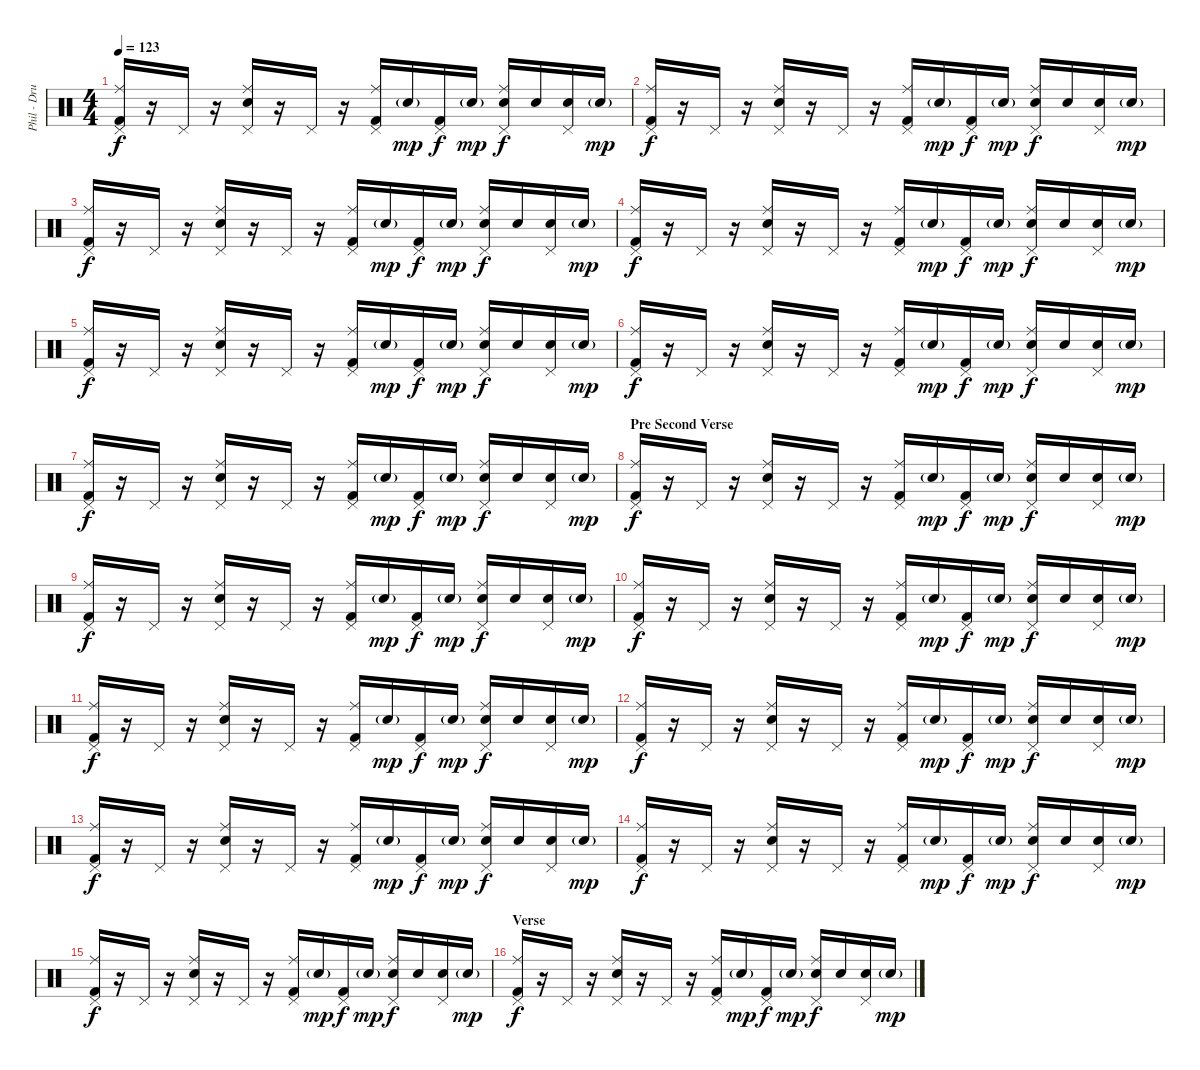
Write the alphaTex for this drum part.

\track ("Phil - Drums" "Phil - Dru") {instrument percussion}
\staff {score}
\articulation defaults
\ts (4 4)
\tempo 123
\clef neutral
\ks c
("Ride (middle)" "Kick (hit) 2" "Pedal Hi-Hat (hit)").16{dy f} r.16 "Pedal Hi-Hat (hit)".16 r.16 ("Ride (middle)" "Snare (hit) 2" "Pedal Hi-Hat (hit)").16 r.16 "Pedal Hi-Hat (hit)".16 r.16 ("Ride (middle)" "Kick (hit) 2" "Pedal Hi-Hat (hit)").16 "Snare (hit) 2"{g}.16{dy mp} ("Kick (hit) 2" "Pedal Hi-Hat (hit)").16{dy f} "Snare (hit) 2"{g}.16{dy mp} ("Ride (middle)" "Snare (hit) 2" "Pedal Hi-Hat (hit)").16{dy f} "Snare (hit) 2".16 ("Snare (hit) 2" "Pedal Hi-Hat (hit)").16 "Snare (hit) 2"{g}.16{dy mp} |
("Ride (middle)" "Kick (hit) 2" "Pedal Hi-Hat (hit)").16{dy f} r.16 "Pedal Hi-Hat (hit)".16 r.16 ("Ride (middle)" "Snare (hit) 2" "Pedal Hi-Hat (hit)").16 r.16 "Pedal Hi-Hat (hit)".16 r.16 ("Ride (middle)" "Kick (hit) 2" "Pedal Hi-Hat (hit)").16 "Snare (hit) 2"{g}.16{dy mp} ("Kick (hit) 2" "Pedal Hi-Hat (hit)").16{dy f} "Snare (hit) 2"{g}.16{dy mp} ("Ride (middle)" "Snare (hit) 2" "Pedal Hi-Hat (hit)").16{dy f} "Snare (hit) 2".16 ("Snare (hit) 2" "Pedal Hi-Hat (hit)").16 "Snare (hit) 2"{g}.16{dy mp} |
("Ride (middle)" "Kick (hit) 2" "Pedal Hi-Hat (hit)").16{dy f} r.16 "Pedal Hi-Hat (hit)".16 r.16 ("Ride (middle)" "Snare (hit) 2" "Pedal Hi-Hat (hit)").16 r.16 "Pedal Hi-Hat (hit)".16 r.16 ("Ride (middle)" "Kick (hit) 2" "Pedal Hi-Hat (hit)").16 "Snare (hit) 2"{g}.16{dy mp} ("Kick (hit) 2" "Pedal Hi-Hat (hit)").16{dy f} "Snare (hit) 2"{g}.16{dy mp} ("Ride (middle)" "Snare (hit) 2" "Pedal Hi-Hat (hit)").16{dy f} "Snare (hit) 2".16 ("Snare (hit) 2" "Pedal Hi-Hat (hit)").16 "Snare (hit) 2"{g}.16{dy mp} |
("Ride (middle)" "Kick (hit) 2" "Pedal Hi-Hat (hit)").16{dy f} r.16 "Pedal Hi-Hat (hit)".16 r.16 ("Ride (middle)" "Snare (hit) 2" "Pedal Hi-Hat (hit)").16 r.16 "Pedal Hi-Hat (hit)".16 r.16 ("Ride (middle)" "Kick (hit) 2" "Pedal Hi-Hat (hit)").16 "Snare (hit) 2"{g}.16{dy mp} ("Kick (hit) 2" "Pedal Hi-Hat (hit)").16{dy f} "Snare (hit) 2"{g}.16{dy mp} ("Ride (middle)" "Snare (hit) 2" "Pedal Hi-Hat (hit)").16{dy f} "Snare (hit) 2".16 ("Snare (hit) 2" "Pedal Hi-Hat (hit)").16 "Snare (hit) 2"{g}.16{dy mp} |
("Ride (middle)" "Kick (hit) 2" "Pedal Hi-Hat (hit)").16{dy f} r.16 "Pedal Hi-Hat (hit)".16 r.16 ("Ride (middle)" "Snare (hit) 2" "Pedal Hi-Hat (hit)").16 r.16 "Pedal Hi-Hat (hit)".16 r.16 ("Ride (middle)" "Kick (hit) 2" "Pedal Hi-Hat (hit)").16 "Snare (hit) 2"{g}.16{dy mp} ("Kick (hit) 2" "Pedal Hi-Hat (hit)").16{dy f} "Snare (hit) 2"{g}.16{dy mp} ("Ride (middle)" "Snare (hit) 2" "Pedal Hi-Hat (hit)").16{dy f} "Snare (hit) 2".16 ("Snare (hit) 2" "Pedal Hi-Hat (hit)").16 "Snare (hit) 2"{g}.16{dy mp} |
("Ride (middle)" "Kick (hit) 2" "Pedal Hi-Hat (hit)").16{dy f} r.16 "Pedal Hi-Hat (hit)".16 r.16 ("Ride (middle)" "Snare (hit) 2" "Pedal Hi-Hat (hit)").16 r.16 "Pedal Hi-Hat (hit)".16 r.16 ("Ride (middle)" "Kick (hit) 2" "Pedal Hi-Hat (hit)").16 "Snare (hit) 2"{g}.16{dy mp} ("Kick (hit) 2" "Pedal Hi-Hat (hit)").16{dy f} "Snare (hit) 2"{g}.16{dy mp} ("Ride (middle)" "Snare (hit) 2" "Pedal Hi-Hat (hit)").16{dy f} "Snare (hit) 2".16 ("Snare (hit) 2" "Pedal Hi-Hat (hit)").16 "Snare (hit) 2"{g}.16{dy mp} |
("Ride (middle)" "Kick (hit) 2" "Pedal Hi-Hat (hit)").16{dy f} r.16 "Pedal Hi-Hat (hit)".16 r.16 ("Ride (middle)" "Snare (hit) 2" "Pedal Hi-Hat (hit)").16 r.16 "Pedal Hi-Hat (hit)".16 r.16 ("Ride (middle)" "Kick (hit) 2" "Pedal Hi-Hat (hit)").16 "Snare (hit) 2"{g}.16{dy mp} ("Kick (hit) 2" "Pedal Hi-Hat (hit)").16{dy f} "Snare (hit) 2"{g}.16{dy mp} ("Ride (middle)" "Snare (hit) 2" "Pedal Hi-Hat (hit)").16{dy f} "Snare (hit) 2".16 ("Snare (hit) 2" "Pedal Hi-Hat (hit)").16 "Snare (hit) 2"{g}.16{dy mp} |
\section ("" "Pre Second Verse")
("Ride (middle)" "Kick (hit) 2" "Pedal Hi-Hat (hit)").16{dy f} r.16 "Pedal Hi-Hat (hit)".16 r.16 ("Ride (middle)" "Snare (hit) 2" "Pedal Hi-Hat (hit)").16 r.16 "Pedal Hi-Hat (hit)".16 r.16 ("Ride (middle)" "Kick (hit) 2" "Pedal Hi-Hat (hit)").16 "Snare (hit) 2"{g}.16{dy mp} ("Kick (hit) 2" "Pedal Hi-Hat (hit)").16{dy f} "Snare (hit) 2"{g}.16{dy mp} ("Ride (middle)" "Snare (hit) 2" "Pedal Hi-Hat (hit)").16{dy f} "Snare (hit) 2".16 ("Snare (hit) 2" "Pedal Hi-Hat (hit)").16 "Snare (hit) 2"{g}.16{dy mp} |
("Ride (middle)" "Kick (hit) 2" "Pedal Hi-Hat (hit)").16{dy f} r.16 "Pedal Hi-Hat (hit)".16 r.16 ("Ride (middle)" "Snare (hit) 2" "Pedal Hi-Hat (hit)").16 r.16 "Pedal Hi-Hat (hit)".16 r.16 ("Ride (middle)" "Kick (hit) 2" "Pedal Hi-Hat (hit)").16 "Snare (hit) 2"{g}.16{dy mp} ("Kick (hit) 2" "Pedal Hi-Hat (hit)").16{dy f} "Snare (hit) 2"{g}.16{dy mp} ("Ride (middle)" "Snare (hit) 2" "Pedal Hi-Hat (hit)").16{dy f} "Snare (hit) 2".16 ("Snare (hit) 2" "Pedal Hi-Hat (hit)").16 "Snare (hit) 2"{g}.16{dy mp} |
("Ride (middle)" "Kick (hit) 2" "Pedal Hi-Hat (hit)").16{dy f} r.16 "Pedal Hi-Hat (hit)".16 r.16 ("Ride (middle)" "Snare (hit) 2" "Pedal Hi-Hat (hit)").16 r.16 "Pedal Hi-Hat (hit)".16 r.16 ("Ride (middle)" "Kick (hit) 2" "Pedal Hi-Hat (hit)").16 "Snare (hit) 2"{g}.16{dy mp} ("Kick (hit) 2" "Pedal Hi-Hat (hit)").16{dy f} "Snare (hit) 2"{g}.16{dy mp} ("Ride (middle)" "Snare (hit) 2" "Pedal Hi-Hat (hit)").16{dy f} "Snare (hit) 2".16 ("Snare (hit) 2" "Pedal Hi-Hat (hit)").16 "Snare (hit) 2"{g}.16{dy mp} |
("Ride (middle)" "Kick (hit) 2" "Pedal Hi-Hat (hit)").16{dy f} r.16 "Pedal Hi-Hat (hit)".16 r.16 ("Ride (middle)" "Snare (hit) 2" "Pedal Hi-Hat (hit)").16 r.16 "Pedal Hi-Hat (hit)".16 r.16 ("Ride (middle)" "Kick (hit) 2" "Pedal Hi-Hat (hit)").16 "Snare (hit) 2"{g}.16{dy mp} ("Kick (hit) 2" "Pedal Hi-Hat (hit)").16{dy f} "Snare (hit) 2"{g}.16{dy mp} ("Ride (middle)" "Snare (hit) 2" "Pedal Hi-Hat (hit)").16{dy f} "Snare (hit) 2".16 ("Snare (hit) 2" "Pedal Hi-Hat (hit)").16 "Snare (hit) 2"{g}.16{dy mp} |
("Ride (middle)" "Kick (hit) 2" "Pedal Hi-Hat (hit)").16{dy f} r.16 "Pedal Hi-Hat (hit)".16 r.16 ("Ride (middle)" "Snare (hit) 2" "Pedal Hi-Hat (hit)").16 r.16 "Pedal Hi-Hat (hit)".16 r.16 ("Ride (middle)" "Kick (hit) 2" "Pedal Hi-Hat (hit)").16 "Snare (hit) 2"{g}.16{dy mp} ("Kick (hit) 2" "Pedal Hi-Hat (hit)").16{dy f} "Snare (hit) 2"{g}.16{dy mp} ("Ride (middle)" "Snare (hit) 2" "Pedal Hi-Hat (hit)").16{dy f} "Snare (hit) 2".16 ("Snare (hit) 2" "Pedal Hi-Hat (hit)").16 "Snare (hit) 2"{g}.16{dy mp} |
("Ride (middle)" "Kick (hit) 2" "Pedal Hi-Hat (hit)").16{dy f} r.16 "Pedal Hi-Hat (hit)".16 r.16 ("Ride (middle)" "Snare (hit) 2" "Pedal Hi-Hat (hit)").16 r.16 "Pedal Hi-Hat (hit)".16 r.16 ("Ride (middle)" "Kick (hit) 2" "Pedal Hi-Hat (hit)").16 "Snare (hit) 2"{g}.16{dy mp} ("Kick (hit) 2" "Pedal Hi-Hat (hit)").16{dy f} "Snare (hit) 2"{g}.16{dy mp} ("Ride (middle)" "Snare (hit) 2" "Pedal Hi-Hat (hit)").16{dy f} "Snare (hit) 2".16 ("Snare (hit) 2" "Pedal Hi-Hat (hit)").16 "Snare (hit) 2"{g}.16{dy mp} |
("Ride (middle)" "Kick (hit) 2" "Pedal Hi-Hat (hit)").16{dy f} r.16 "Pedal Hi-Hat (hit)".16 r.16 ("Ride (middle)" "Snare (hit) 2" "Pedal Hi-Hat (hit)").16 r.16 "Pedal Hi-Hat (hit)".16 r.16 ("Ride (middle)" "Kick (hit) 2" "Pedal Hi-Hat (hit)").16 "Snare (hit) 2"{g}.16{dy mp} ("Kick (hit) 2" "Pedal Hi-Hat (hit)").16{dy f} "Snare (hit) 2"{g}.16{dy mp} ("Ride (middle)" "Snare (hit) 2" "Pedal Hi-Hat (hit)").16{dy f} "Snare (hit) 2".16 ("Snare (hit) 2" "Pedal Hi-Hat (hit)").16 "Snare (hit) 2"{g}.16{dy mp} |
("Ride (middle)" "Kick (hit) 2" "Pedal Hi-Hat (hit)").16{dy f} r.16 "Pedal Hi-Hat (hit)".16 r.16 ("Ride (middle)" "Snare (hit) 2" "Pedal Hi-Hat (hit)").16 r.16 "Pedal Hi-Hat (hit)".16 r.16 ("Ride (middle)" "Kick (hit) 2" "Pedal Hi-Hat (hit)").16 "Snare (hit) 2"{g}.16{dy mp} ("Kick (hit) 2" "Pedal Hi-Hat (hit)").16{dy f} "Snare (hit) 2"{g}.16{dy mp} ("Ride (middle)" "Snare (hit) 2" "Pedal Hi-Hat (hit)").16{dy f} "Snare (hit) 2".16 ("Snare (hit) 2" "Pedal Hi-Hat (hit)").16 "Snare (hit) 2"{g}.16{dy mp} |
\section ("" "Verse")
("Ride (middle)" "Kick (hit) 2" "Pedal Hi-Hat (hit)").16{dy f} r.16 "Pedal Hi-Hat (hit)".16 r.16 ("Ride (middle)" "Snare (hit) 2" "Pedal Hi-Hat (hit)").16 r.16 "Pedal Hi-Hat (hit)".16 r.16 ("Ride (middle)" "Kick (hit) 2" "Pedal Hi-Hat (hit)").16 "Snare (hit) 2"{g}.16{dy mp} ("Kick (hit) 2" "Pedal Hi-Hat (hit)").16{dy f} "Snare (hit) 2"{g}.16{dy mp} ("Ride (middle)" "Snare (hit) 2" "Pedal Hi-Hat (hit)").16{dy f} "Snare (hit) 2".16 ("Snare (hit) 2" "Pedal Hi-Hat (hit)").16 "Snare (hit) 2"{g}.16{dy mp}
